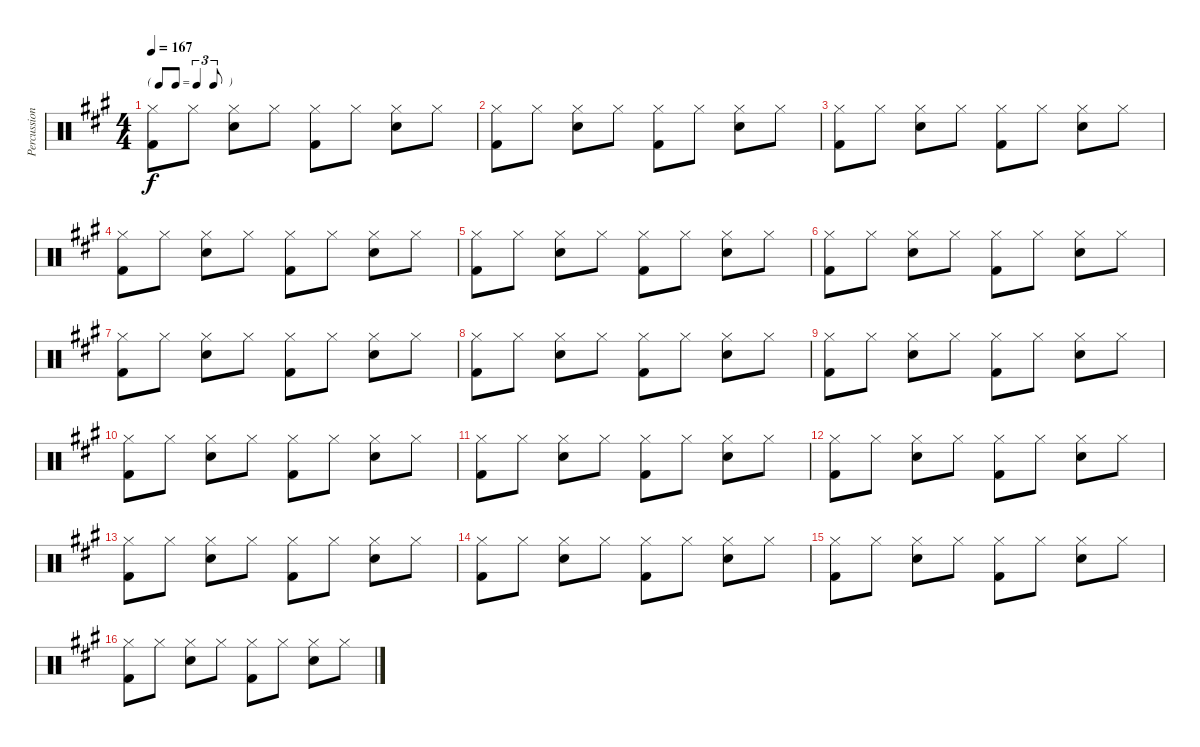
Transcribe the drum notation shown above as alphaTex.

\track ("Percussion" "Percussion") {instrument percussion}
\staff {score}
\articulation defaults
\ts (4 4)
\tf triplet8th
\tempo 167
\clef neutral
\ks a
("Hi-Hat (closed)" "Kick (hit) 2").8{dy f} "Hi-Hat (closed)".8 ("Hi-Hat (closed)" "Snare (hit) 2").8 "Hi-Hat (closed)".8 ("Hi-Hat (closed)" "Kick (hit) 2").8 "Hi-Hat (closed)".8 ("Hi-Hat (closed)" "Snare (hit) 2").8 "Hi-Hat (closed)".8 |
("Hi-Hat (closed)" "Kick (hit) 2").8 "Hi-Hat (closed)".8 ("Hi-Hat (closed)" "Snare (hit) 2").8 "Hi-Hat (closed)".8 ("Hi-Hat (closed)" "Kick (hit) 2").8 "Hi-Hat (closed)".8 ("Hi-Hat (closed)" "Snare (hit) 2").8 "Hi-Hat (closed)".8 |
("Hi-Hat (closed)" "Kick (hit) 2").8 "Hi-Hat (closed)".8 ("Hi-Hat (closed)" "Snare (hit) 2").8 "Hi-Hat (closed)".8 ("Hi-Hat (closed)" "Kick (hit) 2").8 "Hi-Hat (closed)".8 ("Hi-Hat (closed)" "Snare (hit) 2").8 "Hi-Hat (closed)".8 |
("Hi-Hat (closed)" "Kick (hit) 2").8 "Hi-Hat (closed)".8 ("Hi-Hat (closed)" "Snare (hit) 2").8 "Hi-Hat (closed)".8 ("Hi-Hat (closed)" "Kick (hit) 2").8 "Hi-Hat (closed)".8 ("Hi-Hat (closed)" "Snare (hit) 2").8 "Hi-Hat (closed)".8 |
("Hi-Hat (closed)" "Kick (hit) 2").8 "Hi-Hat (closed)".8 ("Hi-Hat (closed)" "Snare (hit) 2").8 "Hi-Hat (closed)".8 ("Hi-Hat (closed)" "Kick (hit) 2").8 "Hi-Hat (closed)".8 ("Hi-Hat (closed)" "Snare (hit) 2").8 "Hi-Hat (closed)".8 |
("Hi-Hat (closed)" "Kick (hit) 2").8 "Hi-Hat (closed)".8 ("Hi-Hat (closed)" "Snare (hit) 2").8 "Hi-Hat (closed)".8 ("Hi-Hat (closed)" "Kick (hit) 2").8 "Hi-Hat (closed)".8 ("Hi-Hat (closed)" "Snare (hit) 2").8 "Hi-Hat (closed)".8 |
("Hi-Hat (closed)" "Kick (hit) 2").8 "Hi-Hat (closed)".8 ("Hi-Hat (closed)" "Snare (hit) 2").8 "Hi-Hat (closed)".8 ("Hi-Hat (closed)" "Kick (hit) 2").8 "Hi-Hat (closed)".8 ("Hi-Hat (closed)" "Snare (hit) 2").8 "Hi-Hat (closed)".8 |
("Hi-Hat (closed)" "Kick (hit) 2").8 "Hi-Hat (closed)".8 ("Hi-Hat (closed)" "Snare (hit) 2").8 "Hi-Hat (closed)".8 ("Hi-Hat (closed)" "Kick (hit) 2").8 "Hi-Hat (closed)".8 ("Hi-Hat (closed)" "Snare (hit) 2").8 "Hi-Hat (closed)".8 |
("Hi-Hat (closed)" "Kick (hit) 2").8 "Hi-Hat (closed)".8 ("Hi-Hat (closed)" "Snare (hit) 2").8 "Hi-Hat (closed)".8 ("Hi-Hat (closed)" "Kick (hit) 2").8 "Hi-Hat (closed)".8 ("Hi-Hat (closed)" "Snare (hit) 2").8 "Hi-Hat (closed)".8 |
("Hi-Hat (closed)" "Kick (hit) 2").8 "Hi-Hat (closed)".8 ("Hi-Hat (closed)" "Snare (hit) 2").8 "Hi-Hat (closed)".8 ("Hi-Hat (closed)" "Kick (hit) 2").8 "Hi-Hat (closed)".8 ("Hi-Hat (closed)" "Snare (hit) 2").8 "Hi-Hat (closed)".8 |
("Hi-Hat (closed)" "Kick (hit) 2").8 "Hi-Hat (closed)".8 ("Hi-Hat (closed)" "Snare (hit) 2").8 "Hi-Hat (closed)".8 ("Hi-Hat (closed)" "Kick (hit) 2").8 "Hi-Hat (closed)".8 ("Hi-Hat (closed)" "Snare (hit) 2").8 "Hi-Hat (closed)".8 |
("Hi-Hat (closed)" "Kick (hit) 2").8 "Hi-Hat (closed)".8 ("Hi-Hat (closed)" "Snare (hit) 2").8 "Hi-Hat (closed)".8 ("Hi-Hat (closed)" "Kick (hit) 2").8 "Hi-Hat (closed)".8 ("Hi-Hat (closed)" "Snare (hit) 2").8 "Hi-Hat (closed)".8 |
("Hi-Hat (closed)" "Kick (hit) 2").8 "Hi-Hat (closed)".8 ("Hi-Hat (closed)" "Snare (hit) 2").8 "Hi-Hat (closed)".8 ("Hi-Hat (closed)" "Kick (hit) 2").8 "Hi-Hat (closed)".8 ("Hi-Hat (closed)" "Snare (hit) 2").8 "Hi-Hat (closed)".8 |
("Hi-Hat (closed)" "Kick (hit) 2").8 "Hi-Hat (closed)".8 ("Hi-Hat (closed)" "Snare (hit) 2").8 "Hi-Hat (closed)".8 ("Hi-Hat (closed)" "Kick (hit) 2").8 "Hi-Hat (closed)".8 ("Hi-Hat (closed)" "Snare (hit) 2").8 "Hi-Hat (closed)".8 |
("Hi-Hat (closed)" "Kick (hit) 2").8 "Hi-Hat (closed)".8 ("Hi-Hat (closed)" "Snare (hit) 2").8 "Hi-Hat (closed)".8 ("Hi-Hat (closed)" "Kick (hit) 2").8 "Hi-Hat (closed)".8 ("Hi-Hat (closed)" "Snare (hit) 2").8 "Hi-Hat (closed)".8 |
("Hi-Hat (closed)" "Kick (hit) 2").8 "Hi-Hat (closed)".8 ("Hi-Hat (closed)" "Snare (hit) 2").8 "Hi-Hat (closed)".8 ("Hi-Hat (closed)" "Kick (hit) 2").8 "Hi-Hat (closed)".8 ("Hi-Hat (closed)" "Snare (hit) 2").8 "Hi-Hat (closed)".8
